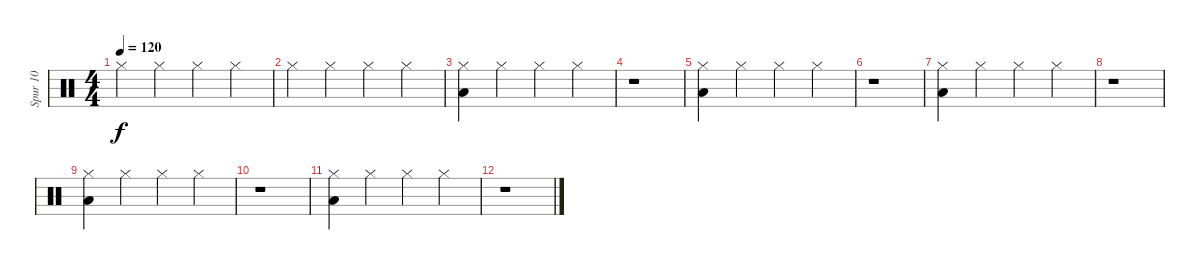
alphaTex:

\track ("Spur 10" "Spur 10") {instrument percussion}
\staff {score}
\articulation defaults
\ts (4 4)
\tempo 120
\clef neutral
\ks c "Hi-Hat (closed)".4{dy f} "Hi-Hat (closed)".4 "Hi-Hat (closed)".4 "Hi-Hat (closed)".4
|
"Hi-Hat (closed)".4 "Hi-Hat (closed)".4 "Hi-Hat (closed)".4 "Hi-Hat (closed)".4 |
("Hi-Hat (closed)" "Low Floor Tom (hit)").4 "Hi-Hat (closed)".4 "Hi-Hat (closed)".4 "Hi-Hat (closed)".4 |
r.1 |
("Hi-Hat (closed)" "Low Floor Tom (hit)").4 "Hi-Hat (closed)".4 "Hi-Hat (closed)".4 "Hi-Hat (closed)".4 |
r.1 |
("Hi-Hat (closed)" "Low Floor Tom (hit)").4 "Hi-Hat (closed)".4 "Hi-Hat (closed)".4 "Hi-Hat (closed)".4 |
r.1 |
("Hi-Hat (closed)" "Low Floor Tom (hit)").4 "Hi-Hat (closed)".4 "Hi-Hat (closed)".4 "Hi-Hat (closed)".4 |
r.1 |
("Hi-Hat (closed)" "Low Floor Tom (hit)").4 "Hi-Hat (closed)".4 "Hi-Hat (closed)".4 "Hi-Hat (closed)".4 |
r.1
